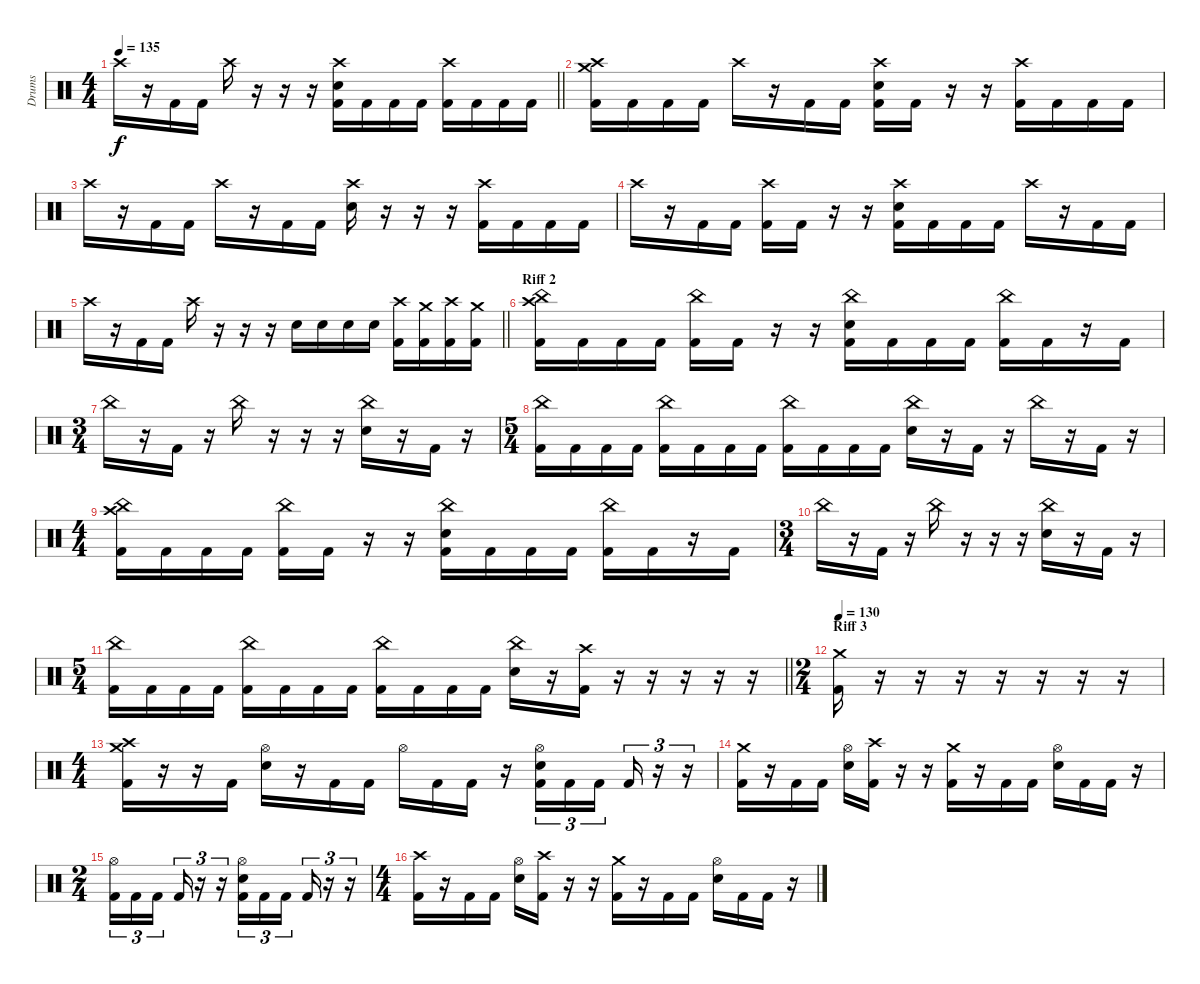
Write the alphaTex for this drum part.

\track ("Drums" "Drums") {instrument percussion}
\staff {score}
\articulation defaults
\ts (4 4)
\tempo 135
\clef neutral
\barLineRight lightlight
\ks c "Crash high (hit)".16{dy f}
r.16 "Kick (hit) 2".16 "Kick (hit) 2".16 "Crash high (hit)".16 r.16 r.16 r.16 ("Crash high (hit)" "Snare (hit) 2" "Kick (hit) 2").16 "Kick (hit) 2".16 "Kick (hit) 2".16 "Kick (hit) 2".16 ("Crash high (hit)" "Kick (hit) 2").16 "Kick (hit) 2".16 "Kick (hit) 2".16 "Kick (hit) 2".16 |
("Crash medium (hit)" "Crash high (hit)" "Kick (hit) 2").16 "Kick (hit) 2".16 "Kick (hit) 2".16 "Kick (hit) 2".16 "Crash high (hit)".16 r.16 "Kick (hit) 2".16 "Kick (hit) 2".16 ("Crash high (hit)" "Snare (hit) 2" "Kick (hit) 2").16 "Kick (hit) 2".16 r.16 r.16 ("Crash high (hit)" "Kick (hit) 2").16 "Kick (hit) 2".16 "Kick (hit) 2".16 "Kick (hit) 2".16 |
"Crash high (hit)".16 r.16 "Kick (hit) 2".16 "Kick (hit) 2".16 "Crash high (hit)".16 r.16 "Kick (hit) 2".16 "Kick (hit) 2".16 ("Crash high (hit)" "Snare (hit) 2").16 r.16 r.16 r.16 ("Crash high (hit)" "Kick (hit) 2").16 "Kick (hit) 2".16 "Kick (hit) 2".16 "Kick (hit) 2".16 |
"Crash high (hit)".16 r.16 "Kick (hit) 2".16 "Kick (hit) 2".16 ("Crash high (hit)" "Kick (hit) 2").16 "Kick (hit) 2".16 r.16 r.16 ("Crash high (hit)" "Snare (hit) 2" "Kick (hit) 2").16 "Kick (hit) 2".16 "Kick (hit) 2".16 "Kick (hit) 2".16 "Crash high (hit)".16 r.16 "Kick (hit) 2".16 "Kick (hit) 2".16 |
\barLineRight lightlight "Crash high (hit)".16
r.16 "Kick (hit) 2".16 "Kick (hit) 2".16 "Crash high (hit)".16 r.16 r.16 r.16 "Snare (hit) 2".16 "Snare (hit) 2".16 "Snare (hit) 2".16 "Snare (hit) 2".16 ("Crash high (hit)" "Kick (hit) 2").16 ("Crash medium (hit)" "Kick (hit) 2").16 ("Crash high (hit)" "Kick (hit) 2").16 ("Crash medium (hit)" "Kick (hit) 2").16 |
\section ("" "Riff 2")
("Crash high (hit)" "China (hit)" "Kick (hit) 2").16 "Kick (hit) 2".16 "Kick (hit) 2".16 "Kick (hit) 2".16 ("China (hit)" "Kick (hit) 2").16 "Kick (hit) 2".16 r.16 r.16 ("China (hit)" "Snare (hit) 2" "Kick (hit) 2").16 "Kick (hit) 2".16 "Kick (hit) 2".16 "Kick (hit) 2".16 ("China (hit)" "Kick (hit) 2").16 "Kick (hit) 2".16 r.16 "Kick (hit) 2".16 |
\ts (3 4)
"China (hit)".16 r.16 "Kick (hit) 2".16 r.16 "China (hit)".16 r.16 r.16 r.16 ("China (hit)" "Snare (hit) 2").16 r.16 "Kick (hit) 2".16 r.16 |
\ts (5 4)
("China (hit)" "Kick (hit) 2").16 "Kick (hit) 2".16 "Kick (hit) 2".16 "Kick (hit) 2".16 ("China (hit)" "Kick (hit) 2").16 "Kick (hit) 2".16 "Kick (hit) 2".16 "Kick (hit) 2".16 ("China (hit)" "Kick (hit) 2").16 "Kick (hit) 2".16 "Kick (hit) 2".16 "Kick (hit) 2".16 ("China (hit)" "Snare (hit) 2").16 r.16 "Kick (hit) 2".16 r.16 "China (hit)".16 r.16 "Kick (hit) 2".16 r.16 |
\ts (4 4)
("Crash high (hit)" "China (hit)" "Kick (hit) 2").16 "Kick (hit) 2".16 "Kick (hit) 2".16 "Kick (hit) 2".16 ("China (hit)" "Kick (hit) 2").16 "Kick (hit) 2".16 r.16 r.16 ("China (hit)" "Snare (hit) 2" "Kick (hit) 2").16 "Kick (hit) 2".16 "Kick (hit) 2".16 "Kick (hit) 2".16 ("China (hit)" "Kick (hit) 2").16 "Kick (hit) 2".16 r.16 "Kick (hit) 2".16 |
\ts (3 4)
"China (hit)".16 r.16 "Kick (hit) 2".16 r.16 "China (hit)".16 r.16 r.16 r.16 ("China (hit)" "Snare (hit) 2").16 r.16 "Kick (hit) 2".16 r.16 |
\ts (5 4)
\barLineRight lightlight
("China (hit)" "Kick (hit) 2").16 "Kick (hit) 2".16 "Kick (hit) 2".16 "Kick (hit) 2".16 ("China (hit)" "Kick (hit) 2").16 "Kick (hit) 2".16 "Kick (hit) 2".16 "Kick (hit) 2".16 ("China (hit)" "Kick (hit) 2").16 "Kick (hit) 2".16 "Kick (hit) 2".16 "Kick (hit) 2".16 ("China (hit)" "Snare (hit) 2").16 r.16 ("Crash high (hit)" "Kick (hit) 2").16 r.16 r.16 r.16 r.16 r.16 |
\ts (2 4)
\section ("" "Riff 3")
\tempo 130
("Crash medium (hit)" "Kick (hit) 2").16 r.16 r.16 r.16 r.16 r.16 r.16 r.16 |
\ts (4 4)
("Crash high (hit)" "Crash medium (hit)" "Kick (hit) 2").16 r.16 r.16 "Kick (hit) 2".16 ("Hi-Hat (open)" "Snare (hit) 2").16 r.16 "Kick (hit) 2".16 "Kick (hit) 2".16 "Hi-Hat (open)".16 "Kick (hit) 2".16 "Kick (hit) 2".16 r.16 ("Hi-Hat (open)" "Snare (hit) 2" "Kick (hit) 2").16{tu (3 2)} "Kick (hit) 2".16{tu (3 2)} "Kick (hit) 2".16{tu (3 2) beam splitsecondary} "Kick (hit) 2".16{tu (3 2)} r.16{tu (3 2)} r.16{tu (3 2)} |
("Crash medium (hit)" "Kick (hit) 2").16 r.16 "Kick (hit) 2".16 "Kick (hit) 2".16 ("Hi-Hat (open)" "Snare (hit) 2").16 ("Crash high (hit)" "Kick (hit) 2").16 r.16 r.16 ("Crash medium (hit)" "Kick (hit) 2").16 r.16 "Kick (hit) 2".16 "Kick (hit) 2".16 ("Hi-Hat (open)" "Snare (hit) 2").16 "Kick (hit) 2".16 "Kick (hit) 2".16 r.16 |
\ts (2 4)
("Hi-Hat (open)" "Kick (hit) 2").16{tu (3 2)} "Kick (hit) 2".16{tu (3 2)} "Kick (hit) 2".16{tu (3 2) beam splitsecondary} "Kick (hit) 2".16{tu (3 2)} r.16{tu (3 2)} r.16{tu (3 2)} ("Hi-Hat (open)" "Snare (hit) 2" "Kick (hit) 2").16{tu (3 2)} "Kick (hit) 2".16{tu (3 2)} "Kick (hit) 2".16{tu (3 2) beam splitsecondary} "Kick (hit) 2".16{tu (3 2)} r.16{tu (3 2)} r.16{tu (3 2)} |
\ts (4 4)
("Crash high (hit)" "Kick (hit) 2").16 r.16 "Kick (hit) 2".16 "Kick (hit) 2".16 ("Hi-Hat (open)" "Snare (hit) 2").16 ("Crash high (hit)" "Kick (hit) 2").16 r.16 r.16 ("Crash medium (hit)" "Kick (hit) 2").16 r.16 "Kick (hit) 2".16 "Kick (hit) 2".16 ("Hi-Hat (open)" "Snare (hit) 2").16 "Kick (hit) 2".16 "Kick (hit) 2".16 r.16
